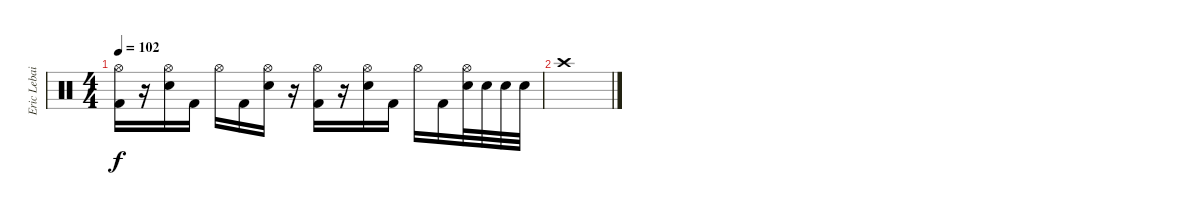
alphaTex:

\track ("Eric Lebailly" "Eric Lebai") {instrument percussion}
\staff {score}
\articulation defaults
\ts (4 4)
\tempo 102
\clef neutral
\ks c
("Hi-Hat (open)" "Kick (hit) 2").16{dy f} r.16 ("Hi-Hat (open)" "Snare (hit) 2").16 "Kick (hit) 2".16 "Hi-Hat (open)".16 "Kick (hit) 2".16 ("Hi-Hat (open)" "Snare (hit) 2").16 r.16 ("Hi-Hat (open)" "Kick (hit) 2").16 r.16 ("Hi-Hat (open)" "Snare (hit) 2").16 "Kick (hit) 2".16 "Hi-Hat (open)".16 "Kick (hit) 2".16 ("Hi-Hat (open)" "Snare (hit) 2").32 "Snare (hit) 2".32 "Snare (hit) 2".32 "Snare (hit) 2".32 |
"Crash high (hit)".1
